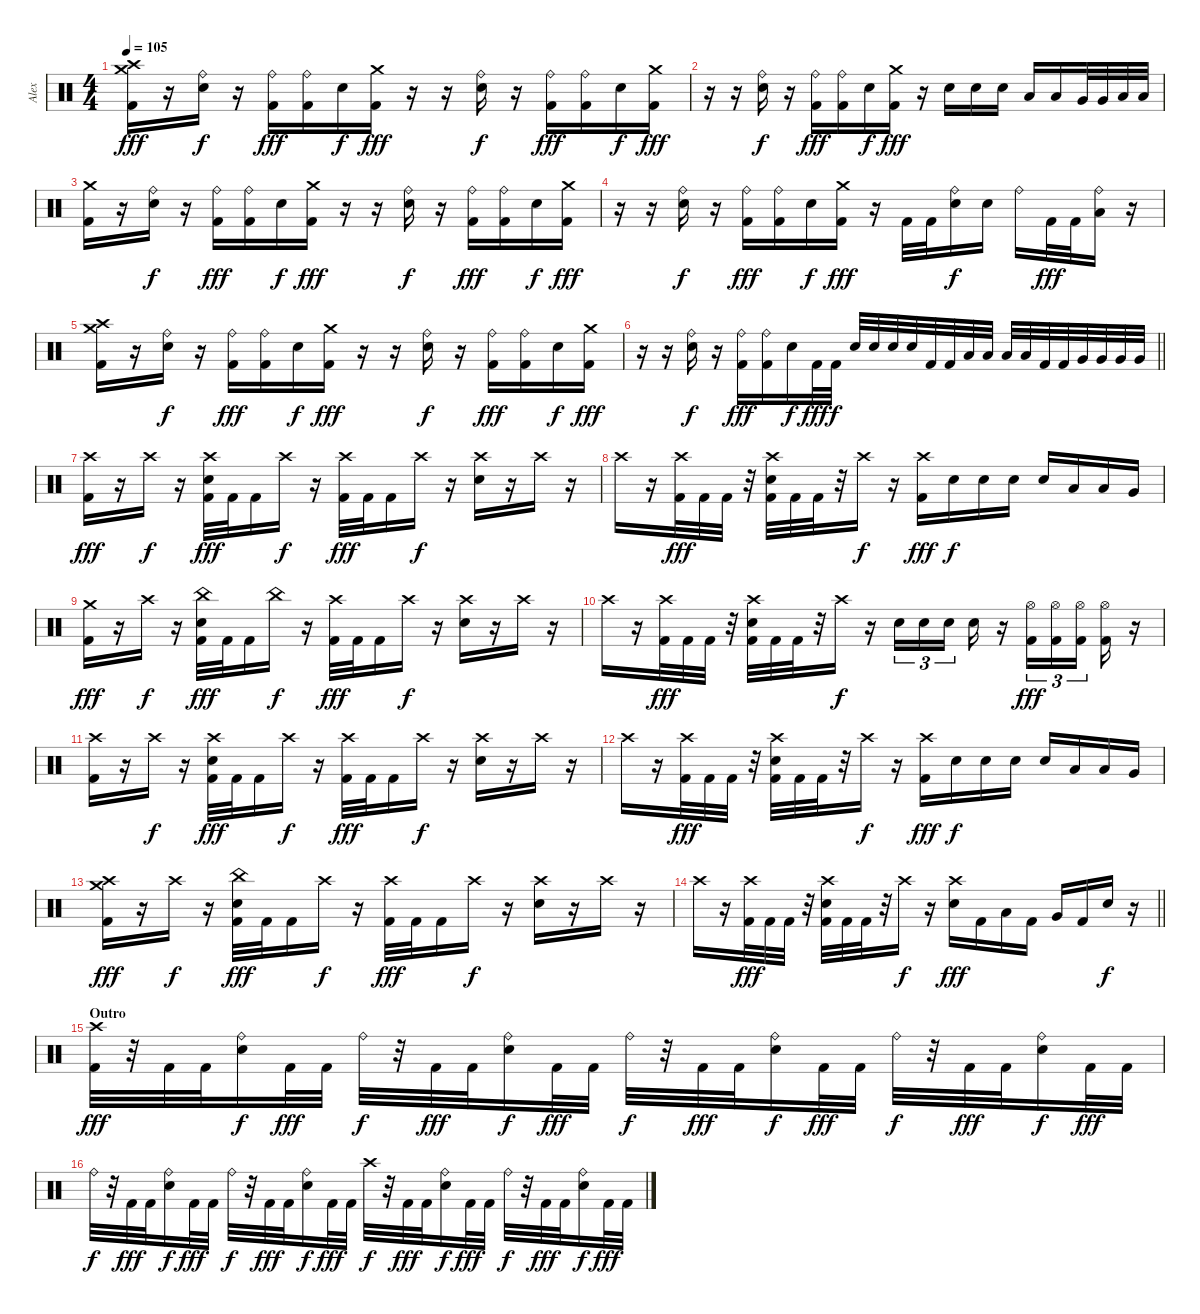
\track ("Alex" "Alex") {instrument percussion}
\staff {score}
\articulation defaults
\ts (4 4)
\section ("" "")
\tempo 105
\clef neutral
\ks c
("Crash high (hit)" "Crash medium (hit)" "Kick (hit) 2").16{dy fff} r.16 ("Ride (bell)" "Electric Snare (hit)").16{dy f} r.16 ("Ride (bell)" "Kick (hit) 2").16{dy fff} ("Ride (bell)" "Kick (hit) 2").16 "Electric Snare (hit)".16{dy f} ("Crash medium (hit)" "Kick (hit) 2").16{dy fff} r.16 r.16 ("Ride (bell)" "Electric Snare (hit)").16{dy f} r.16 ("Ride (bell)" "Kick (hit) 2").16{dy fff} ("Ride (bell)" "Kick (hit) 2").16 "Electric Snare (hit)".16{dy f} ("Crash medium (hit)" "Kick (hit) 2").16{dy fff} |
r.16 r.16 ("Ride (bell)" "Electric Snare (hit)").16{dy f} r.16 ("Ride (bell)" "Kick (hit) 2").16{dy fff} ("Ride (bell)" "Kick (hit) 2").16 "Electric Snare (hit)".16{dy f} ("Crash medium (hit)" "Kick (hit) 2").16{dy fff} r.16 "Electric Snare (hit)".16 "Electric Snare (hit)".16 "Electric Snare (hit)".16 "Low Tom (hit)".16 "Low Tom (hit)".16 "Very Low Tom (hit)".32 "Very Low Tom (hit)".32 "Low Floor Tom (hit)".32 "Low Floor Tom (hit)".32 |
("Crash medium (hit)" "Kick (hit) 2").16 r.16 ("Ride (bell)" "Electric Snare (hit)").16{dy f} r.16 ("Ride (bell)" "Kick (hit) 2").16{dy fff} ("Ride (bell)" "Kick (hit) 2").16 "Electric Snare (hit)".16{dy f} ("Crash medium (hit)" "Kick (hit) 2").16{dy fff} r.16 r.16 ("Ride (bell)" "Electric Snare (hit)").16{dy f} r.16 ("Ride (bell)" "Kick (hit) 2").16{dy fff} ("Ride (bell)" "Kick (hit) 2").16 "Electric Snare (hit)".16{dy f} ("Crash medium (hit)" "Kick (hit) 2").16{dy fff} |
r.16 r.16 ("Ride (bell)" "Electric Snare (hit)").16{dy f} r.16 ("Ride (bell)" "Kick (hit) 2").16{dy fff} ("Ride (bell)" "Kick (hit) 2").16 "Electric Snare (hit)".16{dy f} ("Crash medium (hit)" "Kick (hit) 2").16{dy fff} r.16 "Kick (hit) 2".32 "Kick (hit) 2".32 ("Ride (bell)" "Electric Snare (hit)").16{dy f} "Electric Snare (hit)".16 "Ride (bell)".16 "Kick (hit) 2".32{dy fff} "Kick (hit) 2".32 ("Ride (bell)" "Low Tom (hit)").16 r.16 |
("Crash high (hit)" "Crash medium (hit)" "Kick (hit) 2").16 r.16 ("Ride (bell)" "Electric Snare (hit)").16{dy f} r.16 ("Ride (bell)" "Kick (hit) 2").16{dy fff} ("Ride (bell)" "Kick (hit) 2").16 "Electric Snare (hit)".16{dy f} ("Crash medium (hit)" "Kick (hit) 2").16{dy fff} r.16 r.16 ("Ride (bell)" "Electric Snare (hit)").16{dy f} r.16 ("Ride (bell)" "Kick (hit) 2").16{dy fff} ("Ride (bell)" "Kick (hit) 2").16 "Electric Snare (hit)".16{dy f} ("Crash medium (hit)" "Kick (hit) 2").16{dy fff} |
\barLineRight lightlight
r.16 r.16 ("Ride (bell)" "Electric Snare (hit)").16{dy f} r.16 ("Ride (bell)" "Kick (hit) 2").16{dy fff} ("Ride (bell)" "Kick (hit) 2").16 "Electric Snare (hit)".16{dy f} "Kick (hit) 2".32{dy fff} "Kick (hit) 2".32{dy f} "Electric Snare (hit)".32 "Electric Snare (hit)".32 "Electric Snare (hit)".32 "Electric Snare (hit)".32 "Kick (hit) 2".32 "Kick (hit) 2".32 "Low Tom (hit)".32 "Low Tom (hit)".32 "Low Tom (hit)".32 "Low Tom (hit)".32 "Kick (hit) 2".32 "Kick (hit) 2".32 "Very Low Tom (hit)".32 "Very Low Tom (hit)".32 "Very Low Tom (hit)".32 "Very Low Tom (hit)".32 |
\section ("" "")
("Crash high (hit)" "Kick (hit) 2").16{dy fff} r.16 "Crash high (hit)".16{dy f} r.16 ("Crash high (hit)" "Electric Snare (hit)" "Kick (hit) 2").32{dy fff} "Kick (hit) 2".32 "Kick (hit) 2".16 "Crash high (hit)".16{dy f} r.16 ("Crash high (hit)" "Kick (hit) 2").32{dy fff} "Kick (hit) 2".32 "Kick (hit) 2".16 "Crash high (hit)".16{dy f} r.16 ("Crash high (hit)" "Electric Snare (hit)").16 r.16 "Crash high (hit)".16 r.16 |
"Crash high (hit)".16 r.16 ("Crash high (hit)" "Kick (hit) 2").32{dy fff} "Kick (hit) 2".32 "Kick (hit) 2".32 r.32 ("Crash high (hit)" "Electric Snare (hit)" "Kick (hit) 2").32 "Kick (hit) 2".32 "Kick (hit) 2".32 r.32 "Crash high (hit)".16{dy f} r.16 ("Crash high (hit)" "Kick (hit) 2").16{dy fff} "Electric Snare (hit)".16{dy f} "Electric Snare (hit)".16 "Electric Snare (hit)".16 "Electric Snare (hit)".16 "Low Tom (hit)".16 "Low Tom (hit)".16 "Very Low Tom (hit)".16 |
("Crash medium (hit)" "Kick (hit) 2").16{dy fff} r.16 "Crash high (hit)".16{dy f} r.16 ("China (hit)" "Electric Snare (hit)" "Kick (hit) 2").32{dy fff} "Kick (hit) 2".32 "Kick (hit) 2".16 "China (hit)".16{dy f} r.16 ("Crash high (hit)" "Kick (hit) 2").32{dy fff} "Kick (hit) 2".32 "Kick (hit) 2".16 "Crash high (hit)".16{dy f} r.16 ("Crash high (hit)" "Electric Snare (hit)").16 r.16 "Crash high (hit)".16 r.16 |
"Crash high (hit)".16 r.16 ("Crash high (hit)" "Kick (hit) 2").32{dy fff} "Kick (hit) 2".32 "Kick (hit) 2".32 r.32 ("Crash high (hit)" "Electric Snare (hit)" "Kick (hit) 2").32 "Kick (hit) 2".32 "Kick (hit) 2".32 r.32 "Crash high (hit)".16{dy f} r.16 "Electric Snare (hit)".16{tu (3 2)} "Electric Snare (hit)".16{tu (3 2)} "Electric Snare (hit)".16{tu (3 2) beam splitsecondary} "Electric Snare (hit)".16 r.16 ("Hi-Hat (open)" "Kick (hit) 2").16{tu (3 2) dy fff} ("Hi-Hat (open)" "Kick (hit) 2").16{tu (3 2)} ("Hi-Hat (open)" "Kick (hit) 2").16{tu (3 2) beam splitsecondary} ("Hi-Hat (open)" "Kick (hit) 2").16 r.16 |
("Crash high (hit)" "Kick (hit) 2").16 r.16 "Crash high (hit)".16{dy f} r.16 ("Crash high (hit)" "Electric Snare (hit)" "Kick (hit) 2").32{dy fff} "Kick (hit) 2".32 "Kick (hit) 2".16 "Crash high (hit)".16{dy f} r.16 ("Crash high (hit)" "Kick (hit) 2").32{dy fff} "Kick (hit) 2".32 "Kick (hit) 2".16 "Crash high (hit)".16{dy f} r.16 ("Crash high (hit)" "Electric Snare (hit)").16 r.16 "Crash high (hit)".16 r.16 |
"Crash high (hit)".16 r.16 ("Crash high (hit)" "Kick (hit) 2").32{dy fff} "Kick (hit) 2".32 "Kick (hit) 2".32 r.32 ("Crash high (hit)" "Electric Snare (hit)" "Kick (hit) 2").32 "Kick (hit) 2".32 "Kick (hit) 2".32 r.32 "Crash high (hit)".16{dy f} r.16 ("Crash high (hit)" "Kick (hit) 2").16{dy fff} "Electric Snare (hit)".16{dy f} "Electric Snare (hit)".16 "Electric Snare (hit)".16 "Electric Snare (hit)".16 "Low Tom (hit)".16 "Low Tom (hit)".16 "Very Low Tom (hit)".16 |
("Crash high (hit)" "Crash medium (hit)" "Kick (hit) 2").16{dy fff} r.16 "Crash high (hit)".16{dy f} r.16 ("China (hit)" "Electric Snare (hit)" "Kick (hit) 2").32{dy fff} "Kick (hit) 2".32 "Kick (hit) 2".16 "Crash high (hit)".16{dy f} r.16 ("Crash high (hit)" "Kick (hit) 2").32{dy fff} "Kick (hit) 2".32 "Kick (hit) 2".16 "Crash high (hit)".16{dy f} r.16 ("Crash high (hit)" "Electric Snare (hit)").16 r.16 "Crash high (hit)".16 r.16 |
\barLineRight lightlight "Crash high (hit)".16
r.16 ("Crash high (hit)" "Kick (hit) 2").32{dy fff} "Kick (hit) 2".32 "Kick (hit) 2".32 r.32 ("Crash high (hit)" "Electric Snare (hit)" "Kick (hit) 2").32 "Kick (hit) 2".32 "Kick (hit) 2".32 r.32 "Crash high (hit)".16{dy f} r.16 ("Crash high (hit)" "Electric Snare (hit)").16{dy fff} "Kick (hit) 2".16 "Low Tom (hit)".16 "Kick (hit) 2".16 "Very Low Tom (hit)".16 "Kick (hit) 2".16 "Electric Snare (hit)".16{dy f} r.16 |
\section ("" "Outro")
("Crash high (hit)" "Kick (hit) 2").32{dy fff} r.32 "Kick (hit) 2".32 "Kick (hit) 2".32 ("Ride (bell)" "Electric Snare (hit)").16{dy f} "Kick (hit) 2".32{dy fff} "Kick (hit) 2".32 "Ride (bell)".32{dy f} r.32 "Kick (hit) 2".32{dy fff} "Kick (hit) 2".32 ("Ride (bell)" "Electric Snare (hit)").16{dy f} "Kick (hit) 2".32{dy fff} "Kick (hit) 2".32 "Ride (bell)".32{dy f} r.32 "Kick (hit) 2".32{dy fff} "Kick (hit) 2".32 ("Ride (bell)" "Electric Snare (hit)").16{dy f} "Kick (hit) 2".32{dy fff} "Kick (hit) 2".32 "Ride (bell)".32{dy f} r.32 "Kick (hit) 2".32{dy fff} "Kick (hit) 2".32 ("Ride (bell)" "Electric Snare (hit)").16{dy f} "Kick (hit) 2".32{dy fff} "Kick (hit) 2".32 |
"Ride (bell)".32{dy f} r.32 "Kick (hit) 2".32{dy fff} "Kick (hit) 2".32 ("Ride (bell)" "Electric Snare (hit)").16{dy f} "Kick (hit) 2".32{dy fff} "Kick (hit) 2".32 "Ride (bell)".32{dy f} r.32 "Kick (hit) 2".32{dy fff} "Kick (hit) 2".32 ("Ride (bell)" "Electric Snare (hit)").16{dy f} "Kick (hit) 2".32{dy fff} "Kick (hit) 2".32 "Crash high (hit)".32{dy f} r.32 "Kick (hit) 2".32{dy fff} "Kick (hit) 2".32 ("Ride (bell)" "Electric Snare (hit)").16{dy f} "Kick (hit) 2".32{dy fff} "Kick (hit) 2".32 "Ride (bell)".32{dy f} r.32 "Kick (hit) 2".32{dy fff} "Kick (hit) 2".32 ("Ride (bell)" "Electric Snare (hit)").16{dy f} "Kick (hit) 2".32{dy fff} "Kick (hit) 2".32
